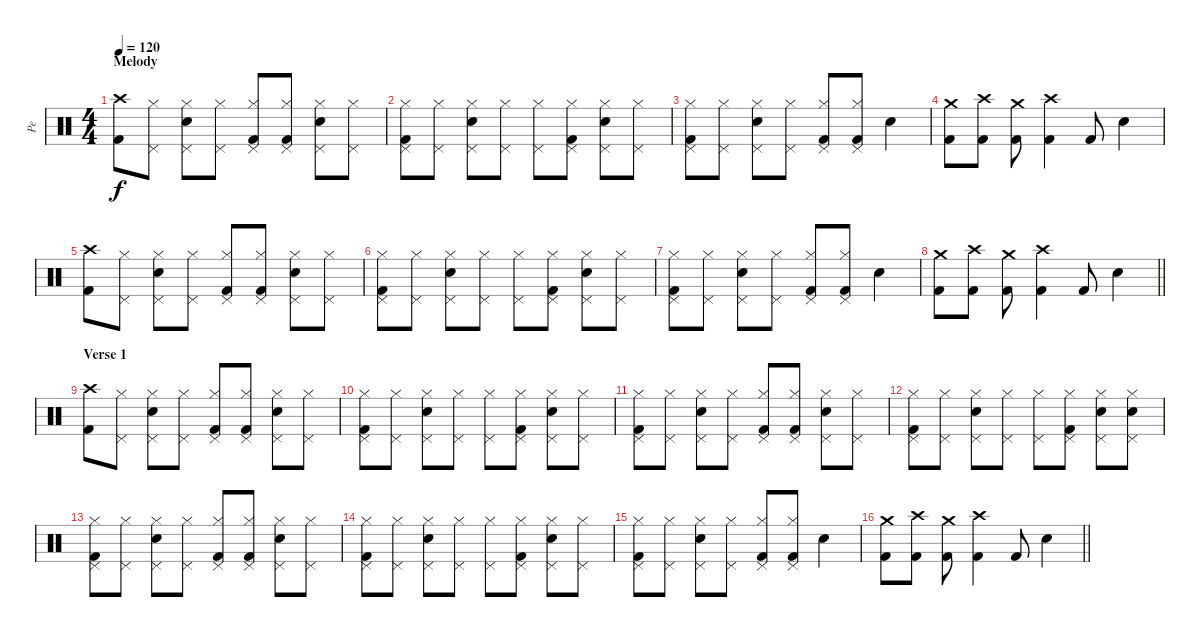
\track ("Pe" "Pe") {instrument percussion}
\staff {score}
\articulation defaults
\ts (4 4)
\section ("" "Melody")
\tempo 120
\clef neutral
\ks c
("Kick (hit) 2" "Crash high (hit)").8{dy f} ("Hi-Hat (closed)" "Pedal Hi-Hat (hit)").8 ("Snare (hit) 2" "Hi-Hat (closed)" "Pedal Hi-Hat (hit)").8 ("Hi-Hat (closed)" "Pedal Hi-Hat (hit)").8 ("Kick (hit) 2" "Hi-Hat (closed)" "Pedal Hi-Hat (hit)").8 ("Kick (hit) 2" "Hi-Hat (closed)" "Pedal Hi-Hat (hit)").8 ("Snare (hit) 2" "Hi-Hat (closed)" "Pedal Hi-Hat (hit)").8 ("Hi-Hat (closed)" "Pedal Hi-Hat (hit)").8 |
("Kick (hit) 2" "Hi-Hat (closed)" "Pedal Hi-Hat (hit)").8 ("Hi-Hat (closed)" "Pedal Hi-Hat (hit)").8 ("Snare (hit) 2" "Hi-Hat (closed)" "Pedal Hi-Hat (hit)").8 ("Hi-Hat (closed)" "Pedal Hi-Hat (hit)").8 ("Hi-Hat (closed)" "Pedal Hi-Hat (hit)").8 ("Kick (hit) 2" "Hi-Hat (closed)" "Pedal Hi-Hat (hit)").8 ("Snare (hit) 2" "Hi-Hat (closed)" "Pedal Hi-Hat (hit)").8 ("Hi-Hat (closed)" "Pedal Hi-Hat (hit)").8 |
("Kick (hit) 2" "Hi-Hat (closed)" "Pedal Hi-Hat (hit)").8 ("Hi-Hat (closed)" "Pedal Hi-Hat (hit)").8 ("Snare (hit) 2" "Hi-Hat (closed)" "Pedal Hi-Hat (hit)").8 ("Hi-Hat (closed)" "Pedal Hi-Hat (hit)").8 ("Kick (hit) 2" "Hi-Hat (closed)" "Pedal Hi-Hat (hit)").8 ("Kick (hit) 2" "Hi-Hat (closed)" "Pedal Hi-Hat (hit)").8 "Snare (hit) 2".4 |
("Kick (hit) 2" "Crash medium (hit)").8 ("Kick (hit) 2" "Crash high (hit)").8 ("Kick (hit) 2" "Crash medium (hit)").8 ("Kick (hit) 2" "Crash high (hit)").4 "Kick (hit) 2".8 "Snare (hit) 2".4 |
("Kick (hit) 2" "Crash high (hit)").8 ("Hi-Hat (closed)" "Pedal Hi-Hat (hit)").8 ("Snare (hit) 2" "Hi-Hat (closed)" "Pedal Hi-Hat (hit)").8 ("Hi-Hat (closed)" "Pedal Hi-Hat (hit)").8 ("Kick (hit) 2" "Hi-Hat (closed)" "Pedal Hi-Hat (hit)").8 ("Kick (hit) 2" "Hi-Hat (closed)" "Pedal Hi-Hat (hit)").8 ("Snare (hit) 2" "Hi-Hat (closed)" "Pedal Hi-Hat (hit)").8 ("Hi-Hat (closed)" "Pedal Hi-Hat (hit)").8 |
("Kick (hit) 2" "Hi-Hat (closed)" "Pedal Hi-Hat (hit)").8 ("Hi-Hat (closed)" "Pedal Hi-Hat (hit)").8 ("Snare (hit) 2" "Hi-Hat (closed)" "Pedal Hi-Hat (hit)").8 ("Hi-Hat (closed)" "Pedal Hi-Hat (hit)").8 ("Hi-Hat (closed)" "Pedal Hi-Hat (hit)").8 ("Kick (hit) 2" "Hi-Hat (closed)" "Pedal Hi-Hat (hit)").8 ("Snare (hit) 2" "Hi-Hat (closed)" "Pedal Hi-Hat (hit)").8 ("Hi-Hat (closed)" "Pedal Hi-Hat (hit)").8 |
("Kick (hit) 2" "Hi-Hat (closed)" "Pedal Hi-Hat (hit)").8 ("Hi-Hat (closed)" "Pedal Hi-Hat (hit)").8 ("Snare (hit) 2" "Hi-Hat (closed)" "Pedal Hi-Hat (hit)").8 ("Hi-Hat (closed)" "Pedal Hi-Hat (hit)").8 ("Kick (hit) 2" "Hi-Hat (closed)" "Pedal Hi-Hat (hit)").8 ("Kick (hit) 2" "Hi-Hat (closed)" "Pedal Hi-Hat (hit)").8 "Snare (hit) 2".4 |
\barLineRight lightlight
("Kick (hit) 2" "Crash medium (hit)").8 ("Kick (hit) 2" "Crash high (hit)").8 ("Kick (hit) 2" "Crash medium (hit)").8 ("Kick (hit) 2" "Crash high (hit)").4 "Kick (hit) 2".8 "Snare (hit) 2".4 |
\section ("" "Verse 1")
("Kick (hit) 2" "Crash high (hit)").8 ("Hi-Hat (closed)" "Pedal Hi-Hat (hit)").8 ("Snare (hit) 2" "Hi-Hat (closed)" "Pedal Hi-Hat (hit)").8 ("Hi-Hat (closed)" "Pedal Hi-Hat (hit)").8 ("Kick (hit) 2" "Hi-Hat (closed)" "Pedal Hi-Hat (hit)").8 ("Kick (hit) 2" "Hi-Hat (closed)" "Pedal Hi-Hat (hit)").8 ("Snare (hit) 2" "Hi-Hat (closed)" "Pedal Hi-Hat (hit)").8 ("Hi-Hat (closed)" "Pedal Hi-Hat (hit)").8 |
("Kick (hit) 2" "Hi-Hat (closed)" "Pedal Hi-Hat (hit)").8 ("Hi-Hat (closed)" "Pedal Hi-Hat (hit)").8 ("Snare (hit) 2" "Hi-Hat (closed)" "Pedal Hi-Hat (hit)").8 ("Hi-Hat (closed)" "Pedal Hi-Hat (hit)").8 ("Hi-Hat (closed)" "Pedal Hi-Hat (hit)").8 ("Kick (hit) 2" "Hi-Hat (closed)" "Pedal Hi-Hat (hit)").8 ("Snare (hit) 2" "Hi-Hat (closed)" "Pedal Hi-Hat (hit)").8 ("Hi-Hat (closed)" "Pedal Hi-Hat (hit)").8 |
("Kick (hit) 2" "Hi-Hat (closed)" "Pedal Hi-Hat (hit)").8 ("Hi-Hat (closed)" "Pedal Hi-Hat (hit)").8 ("Snare (hit) 2" "Hi-Hat (closed)" "Pedal Hi-Hat (hit)").8 ("Hi-Hat (closed)" "Pedal Hi-Hat (hit)").8 ("Kick (hit) 2" "Hi-Hat (closed)" "Pedal Hi-Hat (hit)").8 ("Kick (hit) 2" "Hi-Hat (closed)" "Pedal Hi-Hat (hit)").8 ("Snare (hit) 2" "Hi-Hat (closed)" "Pedal Hi-Hat (hit)").8 ("Hi-Hat (closed)" "Pedal Hi-Hat (hit)").8 |
("Kick (hit) 2" "Hi-Hat (closed)" "Pedal Hi-Hat (hit)").8 ("Hi-Hat (closed)" "Pedal Hi-Hat (hit)").8 ("Snare (hit) 2" "Hi-Hat (closed)" "Pedal Hi-Hat (hit)").8 ("Hi-Hat (closed)" "Pedal Hi-Hat (hit)").8 ("Hi-Hat (closed)" "Pedal Hi-Hat (hit)").8 ("Kick (hit) 2" "Hi-Hat (closed)" "Pedal Hi-Hat (hit)").8 ("Snare (hit) 2" "Hi-Hat (closed)" "Pedal Hi-Hat (hit)").8 ("Snare (hit) 2" "Hi-Hat (closed)" "Pedal Hi-Hat (hit)").8 |
("Kick (hit) 2" "Hi-Hat (closed)" "Pedal Hi-Hat (hit)").8 ("Hi-Hat (closed)" "Pedal Hi-Hat (hit)").8 ("Snare (hit) 2" "Hi-Hat (closed)" "Pedal Hi-Hat (hit)").8 ("Hi-Hat (closed)" "Pedal Hi-Hat (hit)").8 ("Kick (hit) 2" "Hi-Hat (closed)" "Pedal Hi-Hat (hit)").8 ("Kick (hit) 2" "Hi-Hat (closed)" "Pedal Hi-Hat (hit)").8 ("Snare (hit) 2" "Hi-Hat (closed)" "Pedal Hi-Hat (hit)").8 ("Hi-Hat (closed)" "Pedal Hi-Hat (hit)").8 |
("Kick (hit) 2" "Hi-Hat (closed)" "Pedal Hi-Hat (hit)").8 ("Hi-Hat (closed)" "Pedal Hi-Hat (hit)").8 ("Snare (hit) 2" "Hi-Hat (closed)" "Pedal Hi-Hat (hit)").8 ("Hi-Hat (closed)" "Pedal Hi-Hat (hit)").8 ("Hi-Hat (closed)" "Pedal Hi-Hat (hit)").8 ("Kick (hit) 2" "Hi-Hat (closed)" "Pedal Hi-Hat (hit)").8 ("Snare (hit) 2" "Hi-Hat (closed)" "Pedal Hi-Hat (hit)").8 ("Hi-Hat (closed)" "Pedal Hi-Hat (hit)").8 |
("Kick (hit) 2" "Hi-Hat (closed)" "Pedal Hi-Hat (hit)").8 ("Hi-Hat (closed)" "Pedal Hi-Hat (hit)").8 ("Snare (hit) 2" "Hi-Hat (closed)" "Pedal Hi-Hat (hit)").8 ("Hi-Hat (closed)" "Pedal Hi-Hat (hit)").8 ("Kick (hit) 2" "Hi-Hat (closed)" "Pedal Hi-Hat (hit)").8 ("Kick (hit) 2" "Hi-Hat (closed)" "Pedal Hi-Hat (hit)").8 "Snare (hit) 2".4 |
\barLineRight lightlight
("Kick (hit) 2" "Crash medium (hit)").8 ("Kick (hit) 2" "Crash high (hit)").8 ("Kick (hit) 2" "Crash medium (hit)").8 ("Kick (hit) 2" "Crash high (hit)").4 "Kick (hit) 2".8 "Snare (hit) 2".4
